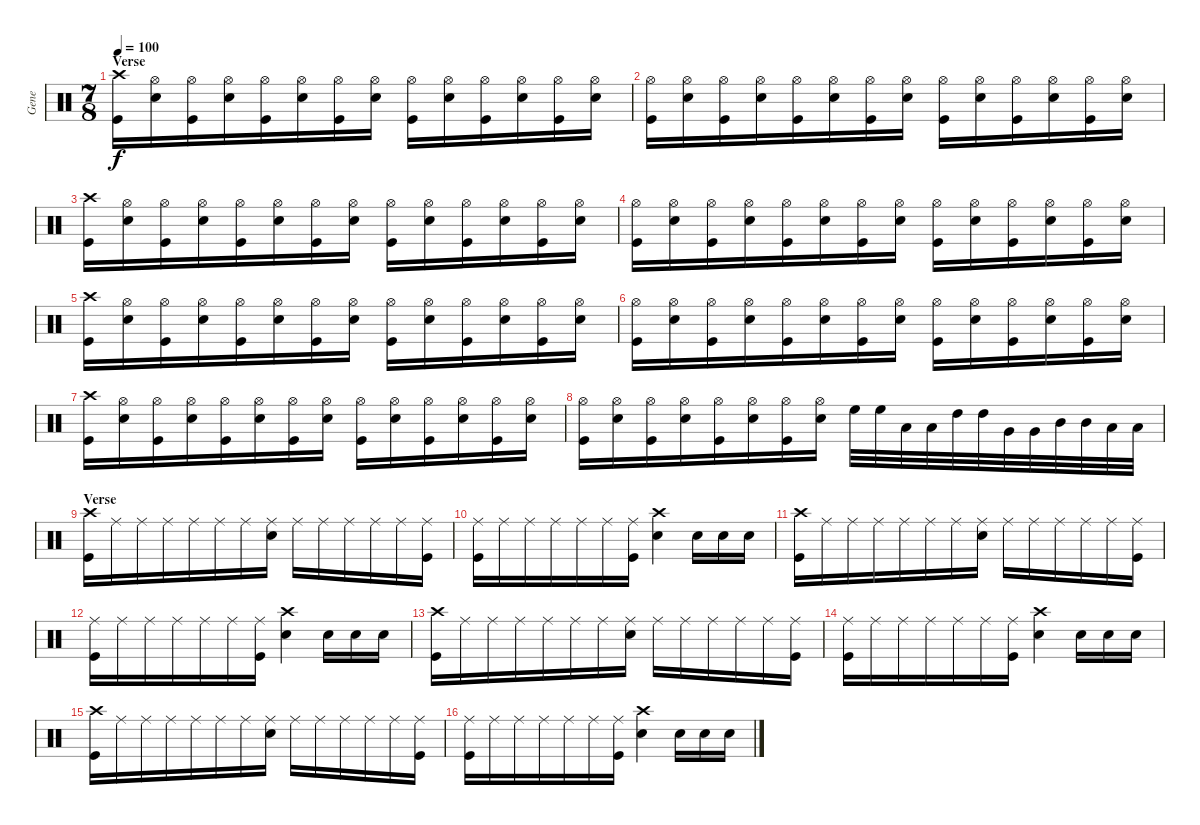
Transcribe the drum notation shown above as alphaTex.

\track ("Gene" "Gene") {instrument percussion}
\staff {score}
\articulation defaults
\ts (7 8)
\section ("" "Verse")
\tempo 100
\clef neutral
\ks c
("Crash high (hit)" "Kick (hit)").16{dy f} ("Hi-Hat (open)" "Snare (hit) 2").16 ("Hi-Hat (open)" "Kick (hit)").16 ("Hi-Hat (open)" "Snare (hit) 2").16 ("Hi-Hat (open)" "Kick (hit)").16 ("Hi-Hat (open)" "Snare (hit) 2").16 ("Hi-Hat (open)" "Kick (hit)").16 ("Hi-Hat (open)" "Snare (hit) 2").16 ("Hi-Hat (open)" "Kick (hit)").16 ("Hi-Hat (open)" "Snare (hit) 2").16 ("Hi-Hat (open)" "Kick (hit)").16 ("Hi-Hat (open)" "Snare (hit) 2").16 ("Hi-Hat (open)" "Kick (hit)").16 ("Hi-Hat (open)" "Snare (hit) 2").16 |
("Hi-Hat (open)" "Kick (hit)").16 ("Hi-Hat (open)" "Snare (hit) 2").16 ("Hi-Hat (open)" "Kick (hit)").16 ("Hi-Hat (open)" "Snare (hit) 2").16 ("Hi-Hat (open)" "Kick (hit)").16 ("Hi-Hat (open)" "Snare (hit) 2").16 ("Hi-Hat (open)" "Kick (hit)").16 ("Hi-Hat (open)" "Snare (hit) 2").16 ("Hi-Hat (open)" "Kick (hit)").16 ("Hi-Hat (open)" "Snare (hit) 2").16 ("Hi-Hat (open)" "Kick (hit)").16 ("Hi-Hat (open)" "Snare (hit) 2").16 ("Hi-Hat (open)" "Kick (hit)").16 ("Hi-Hat (open)" "Snare (hit) 2").16 |
("Crash high (hit)" "Kick (hit)").16 ("Hi-Hat (open)" "Snare (hit) 2").16 ("Hi-Hat (open)" "Kick (hit)").16 ("Hi-Hat (open)" "Snare (hit) 2").16 ("Hi-Hat (open)" "Kick (hit)").16 ("Hi-Hat (open)" "Snare (hit) 2").16 ("Hi-Hat (open)" "Kick (hit)").16 ("Hi-Hat (open)" "Snare (hit) 2").16 ("Hi-Hat (open)" "Kick (hit)").16 ("Hi-Hat (open)" "Snare (hit) 2").16 ("Hi-Hat (open)" "Kick (hit)").16 ("Hi-Hat (open)" "Snare (hit) 2").16 ("Hi-Hat (open)" "Kick (hit)").16 ("Hi-Hat (open)" "Snare (hit) 2").16 |
("Hi-Hat (open)" "Kick (hit)").16 ("Hi-Hat (open)" "Snare (hit) 2").16 ("Hi-Hat (open)" "Kick (hit)").16 ("Hi-Hat (open)" "Snare (hit) 2").16 ("Hi-Hat (open)" "Kick (hit)").16 ("Hi-Hat (open)" "Snare (hit) 2").16 ("Hi-Hat (open)" "Kick (hit)").16 ("Hi-Hat (open)" "Snare (hit) 2").16 ("Hi-Hat (open)" "Kick (hit)").16 ("Hi-Hat (open)" "Snare (hit) 2").16 ("Hi-Hat (open)" "Kick (hit)").16 ("Hi-Hat (open)" "Snare (hit) 2").16 ("Hi-Hat (open)" "Kick (hit)").16 ("Hi-Hat (open)" "Snare (hit) 2").16 |
("Crash high (hit)" "Kick (hit)").16 ("Hi-Hat (open)" "Snare (hit) 2").16 ("Hi-Hat (open)" "Kick (hit)").16 ("Hi-Hat (open)" "Snare (hit) 2").16 ("Hi-Hat (open)" "Kick (hit)").16 ("Hi-Hat (open)" "Snare (hit) 2").16 ("Hi-Hat (open)" "Kick (hit)").16 ("Hi-Hat (open)" "Snare (hit) 2").16 ("Hi-Hat (open)" "Kick (hit)").16 ("Hi-Hat (open)" "Snare (hit) 2").16 ("Hi-Hat (open)" "Kick (hit)").16 ("Hi-Hat (open)" "Snare (hit) 2").16 ("Hi-Hat (open)" "Kick (hit)").16 ("Hi-Hat (open)" "Snare (hit) 2").16 |
("Hi-Hat (open)" "Kick (hit)").16 ("Hi-Hat (open)" "Snare (hit) 2").16 ("Hi-Hat (open)" "Kick (hit)").16 ("Hi-Hat (open)" "Snare (hit) 2").16 ("Hi-Hat (open)" "Kick (hit)").16 ("Hi-Hat (open)" "Snare (hit) 2").16 ("Hi-Hat (open)" "Kick (hit)").16 ("Hi-Hat (open)" "Snare (hit) 2").16 ("Hi-Hat (open)" "Kick (hit)").16 ("Hi-Hat (open)" "Snare (hit) 2").16 ("Hi-Hat (open)" "Kick (hit)").16 ("Hi-Hat (open)" "Snare (hit) 2").16 ("Hi-Hat (open)" "Kick (hit)").16 ("Hi-Hat (open)" "Snare (hit) 2").16 |
("Crash high (hit)" "Kick (hit)").16 ("Hi-Hat (open)" "Snare (hit) 2").16 ("Hi-Hat (open)" "Kick (hit)").16 ("Hi-Hat (open)" "Snare (hit) 2").16 ("Hi-Hat (open)" "Kick (hit)").16 ("Hi-Hat (open)" "Snare (hit) 2").16 ("Hi-Hat (open)" "Kick (hit)").16 ("Hi-Hat (open)" "Snare (hit) 2").16 ("Hi-Hat (open)" "Kick (hit)").16 ("Hi-Hat (open)" "Snare (hit) 2").16 ("Hi-Hat (open)" "Kick (hit)").16 ("Hi-Hat (open)" "Snare (hit) 2").16 ("Hi-Hat (open)" "Kick (hit)").16 ("Hi-Hat (open)" "Snare (hit) 2").16 |
("Hi-Hat (open)" "Kick (hit)").16 ("Hi-Hat (open)" "Snare (hit) 2").16 ("Hi-Hat (open)" "Kick (hit)").16 ("Hi-Hat (open)" "Snare (hit) 2").16 ("Hi-Hat (open)" "Kick (hit)").16 ("Hi-Hat (open)" "Snare (hit) 2").16 ("Hi-Hat (open)" "Kick (hit)").16 ("Hi-Hat (open)" "Snare (hit) 2").16 "High Floor Tom (hit)".32 "High Floor Tom (hit)".32 "Low Tom (hit)".32 "Low Tom (hit)".32 "High Tom (hit)".32 "High Tom (hit)".32 "Very Low Tom (hit)".32 "Very Low Tom (hit)".32 "Mid Tom (hit)".32 "Mid Tom (hit)".32 "Low Floor Tom (hit)".32 "Low Floor Tom (hit)".32 |
\section ("" "Verse")
("Crash high (hit)" "Kick (hit)").16 "Ride (middle)".16 "Ride (middle)".16 "Ride (middle)".16 "Ride (middle)".16 "Ride (middle)".16 "Ride (middle)".16 ("Ride (middle)" "Snare (hit) 2").16 "Ride (middle)".16 "Ride (middle)".16 "Ride (middle)".16 "Ride (middle)".16 "Ride (middle)".16 ("Ride (middle)" "Kick (hit)").16 |
("Ride (middle)" "Kick (hit)").16 "Ride (middle)".16 "Ride (middle)".16 "Ride (middle)".16 "Ride (middle)".16 "Ride (middle)".16 ("Ride (middle)" "Kick (hit)").16 ("Crash high (hit)" "Snare (hit) 2").4 "Snare (hit) 2".16 "Snare (hit) 2".16 "Snare (hit) 2".16 |
("Crash high (hit)" "Kick (hit)").16 "Ride (middle)".16 "Ride (middle)".16 "Ride (middle)".16 "Ride (middle)".16 "Ride (middle)".16 "Ride (middle)".16 ("Ride (middle)" "Snare (hit) 2").16 "Ride (middle)".16 "Ride (middle)".16 "Ride (middle)".16 "Ride (middle)".16 "Ride (middle)".16 ("Ride (middle)" "Kick (hit)").16 |
("Ride (middle)" "Kick (hit)").16 "Ride (middle)".16 "Ride (middle)".16 "Ride (middle)".16 "Ride (middle)".16 "Ride (middle)".16 ("Ride (middle)" "Kick (hit)").16 ("Crash high (hit)" "Snare (hit) 2").4 "Snare (hit) 2".16 "Snare (hit) 2".16 "Snare (hit) 2".16 |
("Crash high (hit)" "Kick (hit)").16 "Ride (middle)".16 "Ride (middle)".16 "Ride (middle)".16 "Ride (middle)".16 "Ride (middle)".16 "Ride (middle)".16 ("Ride (middle)" "Snare (hit) 2").16 "Ride (middle)".16 "Ride (middle)".16 "Ride (middle)".16 "Ride (middle)".16 "Ride (middle)".16 ("Ride (middle)" "Kick (hit)").16 |
("Ride (middle)" "Kick (hit)").16 "Ride (middle)".16 "Ride (middle)".16 "Ride (middle)".16 "Ride (middle)".16 "Ride (middle)".16 ("Ride (middle)" "Kick (hit)").16 ("Crash high (hit)" "Snare (hit) 2").4 "Snare (hit) 2".16 "Snare (hit) 2".16 "Snare (hit) 2".16 |
("Crash high (hit)" "Kick (hit)").16 "Ride (middle)".16 "Ride (middle)".16 "Ride (middle)".16 "Ride (middle)".16 "Ride (middle)".16 "Ride (middle)".16 ("Ride (middle)" "Snare (hit) 2").16 "Ride (middle)".16 "Ride (middle)".16 "Ride (middle)".16 "Ride (middle)".16 "Ride (middle)".16 ("Ride (middle)" "Kick (hit)").16 |
("Ride (middle)" "Kick (hit)").16 "Ride (middle)".16 "Ride (middle)".16 "Ride (middle)".16 "Ride (middle)".16 "Ride (middle)".16 ("Ride (middle)" "Kick (hit)").16 ("Crash high (hit)" "Snare (hit) 2").4 "Snare (hit) 2".16 "Snare (hit) 2".16 "Snare (hit) 2".16
